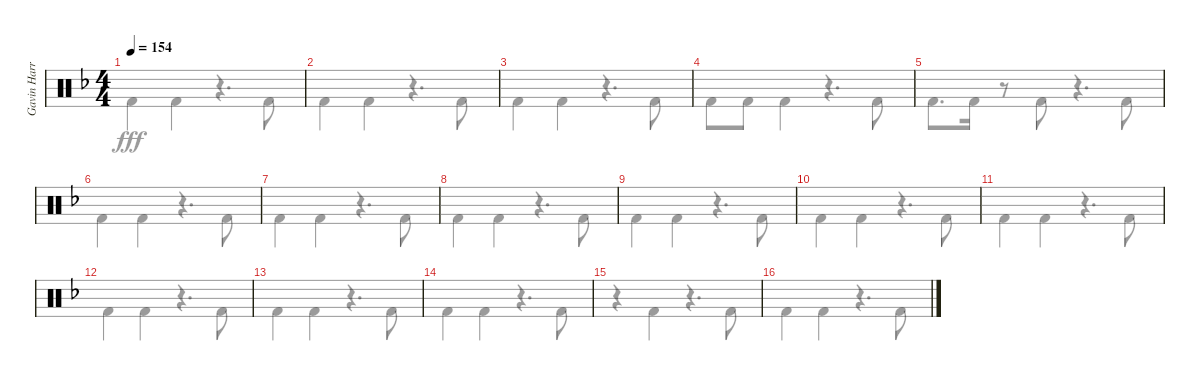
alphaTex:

\track ("Gavin Harrison Bass Pedal" "Gavin Harr") {instrument percussion}
\staff {score}
\articulation defaults
\voice
\ts (4 4)
\tempo 154
\clef neutral
\ks dminor
|
|
|
|
|
|
|
|
|
|
|
|
|
|
|
\voice
\clef neutral
\ks dminor "Kick (hit) 2".4{dy fff} "Kick (hit) 2".4
r.4{d} "Kick (hit) 2".8 |
"Kick (hit) 2".4 "Kick (hit) 2".4 r.4{d} "Kick (hit) 2".8 |
"Kick (hit) 2".4 "Kick (hit) 2".4 r.4{d} "Kick (hit) 2".8 |
"Kick (hit) 2".8 "Kick (hit) 2".8 "Kick (hit) 2".4 r.4{d} "Kick (hit) 2".8 |
"Kick (hit) 2".8{d} "Kick (hit) 2".16 r.8 "Kick (hit) 2".8 r.4{d} "Kick (hit) 2".8 |
"Kick (hit) 2".4 "Kick (hit) 2".4 r.4{d} "Kick (hit) 2".8 |
"Kick (hit) 2".4 "Kick (hit) 2".4 r.4{d} "Kick (hit) 2".8 |
"Kick (hit) 2".4 "Kick (hit) 2".4 r.4{d} "Kick (hit) 2".8 |
"Kick (hit) 2".4 "Kick (hit) 2".4 r.4{d} "Kick (hit) 2".8 |
"Kick (hit) 2".4 "Kick (hit) 2".4 r.4{d} "Kick (hit) 2".8 |
"Kick (hit) 2".4 "Kick (hit) 2".4 r.4{d} "Kick (hit) 2".8 |
"Kick (hit) 2".4 "Kick (hit) 2".4 r.4{d} "Kick (hit) 2".8 |
"Kick (hit) 2".4 "Kick (hit) 2".4 r.4{d} "Kick (hit) 2".8 |
"Kick (hit) 2".4 "Kick (hit) 2".4 r.4{d} "Kick (hit) 2".8 |
r.4 "Kick (hit) 2".4 r.4{d} "Kick (hit) 2".8 |
"Kick (hit) 2".4 "Kick (hit) 2".4 r.4{d} "Kick (hit) 2".8
